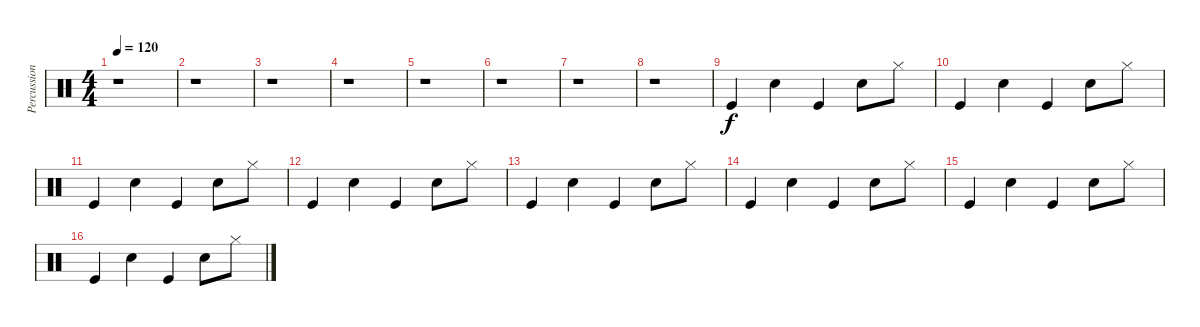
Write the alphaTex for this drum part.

\track ("Percussion" "Percussion") {instrument percussion}
\staff {score}
\articulation defaults
\ts (4 4)
\tempo 120
\clef neutral
\ks c
r.1{dy f} |
r.1 |
r.1 |
r.1 |
r.1 |
r.1 |
r.1 |
r.1 |
"Kick (hit)".4 "Snare (hit) 2".4 "Kick (hit)".4 "Snare (hit) 2".8 "Hi-Hat (closed)".8 |
"Kick (hit)".4 "Snare (hit) 2".4 "Kick (hit)".4 "Snare (hit) 2".8 "Hi-Hat (closed)".8 |
"Kick (hit)".4 "Snare (hit) 2".4 "Kick (hit)".4 "Snare (hit) 2".8 "Hi-Hat (closed)".8 |
"Kick (hit)".4 "Snare (hit) 2".4 "Kick (hit)".4 "Snare (hit) 2".8 "Hi-Hat (closed)".8 |
"Kick (hit)".4 "Snare (hit) 2".4 "Kick (hit)".4 "Snare (hit) 2".8 "Hi-Hat (closed)".8 |
"Kick (hit)".4 "Snare (hit) 2".4 "Kick (hit)".4 "Snare (hit) 2".8 "Hi-Hat (closed)".8 |
"Kick (hit)".4 "Snare (hit) 2".4 "Kick (hit)".4 "Snare (hit) 2".8 "Hi-Hat (closed)".8 |
"Kick (hit)".4 "Snare (hit) 2".4 "Kick (hit)".4 "Snare (hit) 2".8 "Hi-Hat (closed)".8
